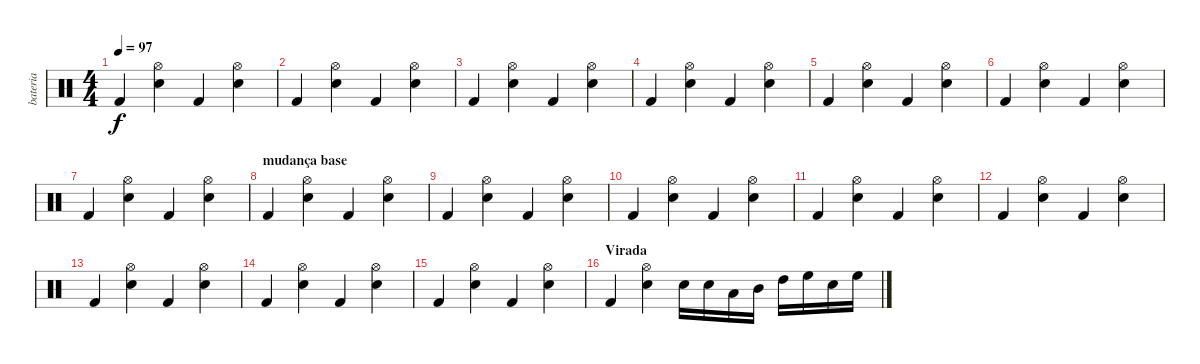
\track ("bateria" "bateria") {instrument percussion}
\staff {score}
\articulation defaults
\ts (4 4)
\tempo 97
\clef neutral
\ks c "Kick (hit) 2".4{dy f}
("Hi-Hat (open)" "Electric Snare (hit)").4 "Kick (hit) 2".4 ("Hi-Hat (open)" "Electric Snare (hit)").4 |
"Kick (hit) 2".4 ("Hi-Hat (open)" "Electric Snare (hit)").4 "Kick (hit) 2".4 ("Hi-Hat (open)" "Electric Snare (hit)").4 |
"Kick (hit) 2".4 ("Hi-Hat (open)" "Electric Snare (hit)").4 "Kick (hit) 2".4 ("Hi-Hat (open)" "Electric Snare (hit)").4 |
"Kick (hit) 2".4 ("Hi-Hat (open)" "Electric Snare (hit)").4 "Kick (hit) 2".4 ("Hi-Hat (open)" "Electric Snare (hit)").4 |
"Kick (hit) 2".4 ("Hi-Hat (open)" "Electric Snare (hit)").4 "Kick (hit) 2".4 ("Hi-Hat (open)" "Electric Snare (hit)").4 |
"Kick (hit) 2".4 ("Hi-Hat (open)" "Electric Snare (hit)").4 "Kick (hit) 2".4 ("Hi-Hat (open)" "Electric Snare (hit)").4 |
"Kick (hit) 2".4 ("Hi-Hat (open)" "Electric Snare (hit)").4 "Kick (hit) 2".4 ("Hi-Hat (open)" "Electric Snare (hit)").4 |
\section ("" "mudança base")
"Kick (hit) 2".4 ("Hi-Hat (open)" "Electric Snare (hit)").4 "Kick (hit) 2".4 ("Hi-Hat (open)" "Electric Snare (hit)").4 |
"Kick (hit) 2".4 ("Hi-Hat (open)" "Electric Snare (hit)").4 "Kick (hit) 2".4 ("Hi-Hat (open)" "Electric Snare (hit)").4 |
"Kick (hit) 2".4 ("Hi-Hat (open)" "Electric Snare (hit)").4 "Kick (hit) 2".4 ("Hi-Hat (open)" "Electric Snare (hit)").4 |
"Kick (hit) 2".4 ("Hi-Hat (open)" "Electric Snare (hit)").4 "Kick (hit) 2".4 ("Hi-Hat (open)" "Electric Snare (hit)").4 |
"Kick (hit) 2".4 ("Hi-Hat (open)" "Electric Snare (hit)").4 "Kick (hit) 2".4 ("Hi-Hat (open)" "Electric Snare (hit)").4 |
"Kick (hit) 2".4 ("Hi-Hat (open)" "Electric Snare (hit)").4 "Kick (hit) 2".4 ("Hi-Hat (open)" "Electric Snare (hit)").4 |
"Kick (hit) 2".4 ("Hi-Hat (open)" "Electric Snare (hit)").4 "Kick (hit) 2".4 ("Hi-Hat (open)" "Electric Snare (hit)").4 |
"Kick (hit) 2".4 ("Hi-Hat (open)" "Electric Snare (hit)").4 "Kick (hit) 2".4 ("Hi-Hat (open)" "Electric Snare (hit)").4 |
\section ("" "Virada")
"Kick (hit) 2".4 ("Hi-Hat (open)" "Electric Snare (hit)").4 "Electric Snare (hit)".16 "Electric Snare (hit)".16 "Low Tom (hit)".16 "Mid Tom (hit)".16 "High Tom (hit)".16 "High Floor Tom (hit)".16 "Electric Snare (hit)".16 "High Floor Tom (hit)".16
